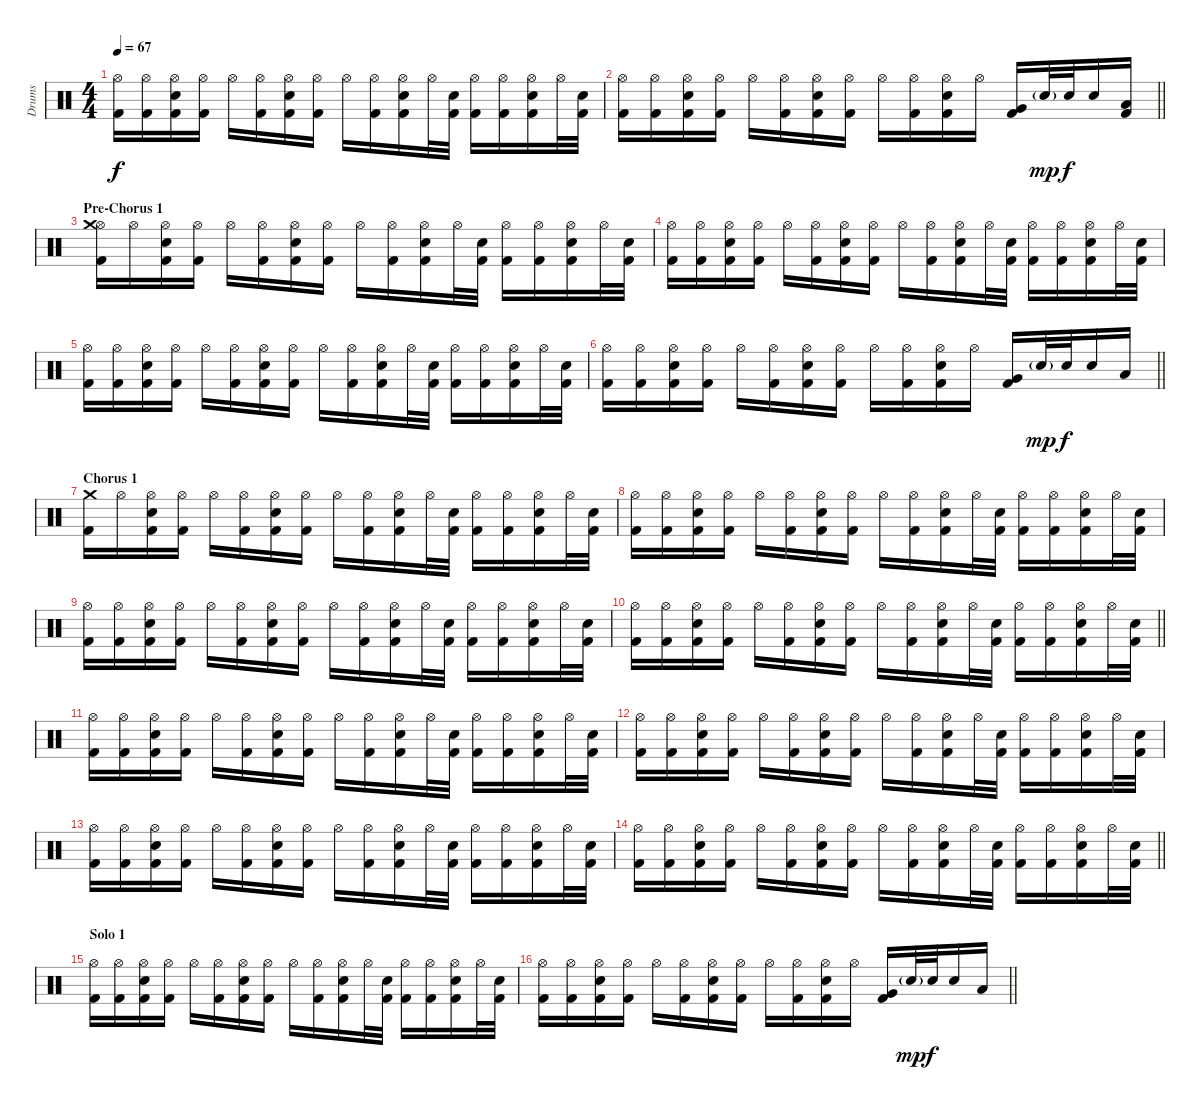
\track ("Drums" "Drums") {instrument percussion}
\staff {score}
\articulation defaults
\ts (4 4)
\tempo 67
\clef neutral
\ks c
("Kick (hit) 2" "Hi-Hat (open)").16{dy f} ("Kick (hit) 2" "Hi-Hat (open)").16 ("Kick (hit) 2" "Snare (hit) 2" "Hi-Hat (open)").16 ("Kick (hit) 2" "Hi-Hat (open)").16 "Hi-Hat (open)".16 ("Kick (hit) 2" "Hi-Hat (open)").16 ("Kick (hit) 2" "Snare (hit) 2" "Hi-Hat (open)").16 ("Kick (hit) 2" "Hi-Hat (open)").16 "Hi-Hat (open)".16 ("Kick (hit) 2" "Hi-Hat (open)").16 ("Kick (hit) 2" "Snare (hit) 2" "Hi-Hat (open)").16 "Hi-Hat (open)".32 ("Kick (hit) 2" "Snare (hit) 2").32 ("Kick (hit) 2" "Hi-Hat (open)").16 ("Kick (hit) 2" "Hi-Hat (open)").16 ("Kick (hit) 2" "Snare (hit) 2" "Hi-Hat (open)").16 "Hi-Hat (open)".32 ("Kick (hit) 2" "Snare (hit) 2").32 |
\barLineRight lightlight
("Kick (hit) 2" "Hi-Hat (open)").16 ("Kick (hit) 2" "Hi-Hat (open)").16 ("Kick (hit) 2" "Snare (hit) 2" "Hi-Hat (open)").16 ("Kick (hit) 2" "Hi-Hat (open)").16 "Hi-Hat (open)".16 ("Kick (hit) 2" "Hi-Hat (open)").16 ("Kick (hit) 2" "Snare (hit) 2" "Hi-Hat (open)").16 ("Kick (hit) 2" "Hi-Hat (open)").16 "Hi-Hat (open)".16 ("Kick (hit) 2" "Hi-Hat (open)").16 ("Kick (hit) 2" "Snare (hit) 2" "Hi-Hat (open)").16 "Hi-Hat (open)".16 ("Kick (hit) 2" "Very Low Tom (hit)").16 "Snare (hit) 2"{g}.32{dy mp} "Snare (hit) 2".32{dy f} "Snare (hit) 2".16 ("Kick (hit) 2" "Low Floor Tom (hit)").16 |
\section ("" "Pre-Chorus 1")
("Kick (hit) 2" "Hi-Hat (open)" "Crash medium (hit)").16 "Hi-Hat (open)".16 ("Kick (hit) 2" "Snare (hit) 2" "Hi-Hat (open)").16 ("Kick (hit) 2" "Hi-Hat (open)").16 "Hi-Hat (open)".16 ("Kick (hit) 2" "Hi-Hat (open)").16 ("Kick (hit) 2" "Snare (hit) 2" "Hi-Hat (open)").16 ("Kick (hit) 2" "Hi-Hat (open)").16 "Hi-Hat (open)".16 ("Kick (hit) 2" "Hi-Hat (open)").16 ("Kick (hit) 2" "Snare (hit) 2" "Hi-Hat (open)").16 "Hi-Hat (open)".32 ("Kick (hit) 2" "Snare (hit) 2").32 ("Kick (hit) 2" "Hi-Hat (open)").16 ("Kick (hit) 2" "Hi-Hat (open)").16 ("Kick (hit) 2" "Snare (hit) 2" "Hi-Hat (open)").16 "Hi-Hat (open)".32 ("Kick (hit) 2" "Snare (hit) 2").32 |
("Kick (hit) 2" "Hi-Hat (open)").16 ("Kick (hit) 2" "Hi-Hat (open)").16 ("Kick (hit) 2" "Snare (hit) 2" "Hi-Hat (open)").16 ("Kick (hit) 2" "Hi-Hat (open)").16 "Hi-Hat (open)".16 ("Kick (hit) 2" "Hi-Hat (open)").16 ("Kick (hit) 2" "Snare (hit) 2" "Hi-Hat (open)").16 ("Kick (hit) 2" "Hi-Hat (open)").16 "Hi-Hat (open)".16 ("Kick (hit) 2" "Hi-Hat (open)").16 ("Kick (hit) 2" "Snare (hit) 2" "Hi-Hat (open)").16 "Hi-Hat (open)".32 ("Kick (hit) 2" "Snare (hit) 2").32 ("Kick (hit) 2" "Hi-Hat (open)").16 ("Kick (hit) 2" "Hi-Hat (open)").16 ("Kick (hit) 2" "Snare (hit) 2" "Hi-Hat (open)").16 "Hi-Hat (open)".32 ("Kick (hit) 2" "Snare (hit) 2").32 |
("Kick (hit) 2" "Hi-Hat (open)").16 ("Kick (hit) 2" "Hi-Hat (open)").16 ("Kick (hit) 2" "Snare (hit) 2" "Hi-Hat (open)").16 ("Kick (hit) 2" "Hi-Hat (open)").16 "Hi-Hat (open)".16 ("Kick (hit) 2" "Hi-Hat (open)").16 ("Kick (hit) 2" "Snare (hit) 2" "Hi-Hat (open)").16 ("Kick (hit) 2" "Hi-Hat (open)").16 "Hi-Hat (open)".16 ("Kick (hit) 2" "Hi-Hat (open)").16 ("Kick (hit) 2" "Snare (hit) 2" "Hi-Hat (open)").16 "Hi-Hat (open)".32 ("Kick (hit) 2" "Snare (hit) 2").32 ("Kick (hit) 2" "Hi-Hat (open)").16 ("Kick (hit) 2" "Hi-Hat (open)").16 ("Kick (hit) 2" "Snare (hit) 2" "Hi-Hat (open)").16 "Hi-Hat (open)".32 ("Kick (hit) 2" "Snare (hit) 2").32 |
\barLineRight lightlight
("Kick (hit) 2" "Hi-Hat (open)").16 ("Kick (hit) 2" "Hi-Hat (open)").16 ("Kick (hit) 2" "Snare (hit) 2" "Hi-Hat (open)").16 ("Kick (hit) 2" "Hi-Hat (open)").16 "Hi-Hat (open)".16 ("Kick (hit) 2" "Hi-Hat (open)").16 ("Kick (hit) 2" "Snare (hit) 2" "Hi-Hat (open)").16 ("Kick (hit) 2" "Hi-Hat (open)").16 "Hi-Hat (open)".16 ("Kick (hit) 2" "Hi-Hat (open)").16 ("Kick (hit) 2" "Snare (hit) 2" "Hi-Hat (open)").16 "Hi-Hat (open)".16 ("Kick (hit) 2" "Very Low Tom (hit)").16 "Snare (hit) 2"{g}.32{dy mp} "Snare (hit) 2".32{dy f} "Snare (hit) 2".16 "Low Floor Tom (hit)".16 |
\section ("" "Chorus 1")
("Kick (hit) 2" "Crash medium (hit)").16 "Hi-Hat (open)".16 ("Kick (hit) 2" "Snare (hit) 2" "Hi-Hat (open)").16 ("Kick (hit) 2" "Hi-Hat (open)").16 "Hi-Hat (open)".16 ("Kick (hit) 2" "Hi-Hat (open)").16 ("Kick (hit) 2" "Snare (hit) 2" "Hi-Hat (open)").16 ("Kick (hit) 2" "Hi-Hat (open)").16 "Hi-Hat (open)".16 ("Kick (hit) 2" "Hi-Hat (open)").16 ("Kick (hit) 2" "Snare (hit) 2" "Hi-Hat (open)").16 "Hi-Hat (open)".32 ("Kick (hit) 2" "Snare (hit) 2").32 ("Kick (hit) 2" "Hi-Hat (open)").16 ("Kick (hit) 2" "Hi-Hat (open)").16 ("Kick (hit) 2" "Snare (hit) 2" "Hi-Hat (open)").16 "Hi-Hat (open)".32 ("Kick (hit) 2" "Snare (hit) 2").32 |
("Kick (hit) 2" "Hi-Hat (open)").16 ("Kick (hit) 2" "Hi-Hat (open)").16 ("Kick (hit) 2" "Snare (hit) 2" "Hi-Hat (open)").16 ("Kick (hit) 2" "Hi-Hat (open)").16 "Hi-Hat (open)".16 ("Kick (hit) 2" "Hi-Hat (open)").16 ("Kick (hit) 2" "Snare (hit) 2" "Hi-Hat (open)").16 ("Kick (hit) 2" "Hi-Hat (open)").16 "Hi-Hat (open)".16 ("Kick (hit) 2" "Hi-Hat (open)").16 ("Kick (hit) 2" "Snare (hit) 2" "Hi-Hat (open)").16 "Hi-Hat (open)".32 ("Kick (hit) 2" "Snare (hit) 2").32 ("Kick (hit) 2" "Hi-Hat (open)").16 ("Kick (hit) 2" "Hi-Hat (open)").16 ("Kick (hit) 2" "Snare (hit) 2" "Hi-Hat (open)").16 "Hi-Hat (open)".32 ("Kick (hit) 2" "Snare (hit) 2").32 |
("Kick (hit) 2" "Hi-Hat (open)").16 ("Kick (hit) 2" "Hi-Hat (open)").16 ("Kick (hit) 2" "Snare (hit) 2" "Hi-Hat (open)").16 ("Kick (hit) 2" "Hi-Hat (open)").16 "Hi-Hat (open)".16 ("Kick (hit) 2" "Hi-Hat (open)").16 ("Kick (hit) 2" "Snare (hit) 2" "Hi-Hat (open)").16 ("Kick (hit) 2" "Hi-Hat (open)").16 "Hi-Hat (open)".16 ("Kick (hit) 2" "Hi-Hat (open)").16 ("Kick (hit) 2" "Snare (hit) 2" "Hi-Hat (open)").16 "Hi-Hat (open)".32 ("Kick (hit) 2" "Snare (hit) 2").32 ("Kick (hit) 2" "Hi-Hat (open)").16 ("Kick (hit) 2" "Hi-Hat (open)").16 ("Kick (hit) 2" "Snare (hit) 2" "Hi-Hat (open)").16 "Hi-Hat (open)".32 ("Kick (hit) 2" "Snare (hit) 2").32 |
\barLineRight lightlight
("Kick (hit) 2" "Hi-Hat (open)").16 ("Kick (hit) 2" "Hi-Hat (open)").16 ("Kick (hit) 2" "Snare (hit) 2" "Hi-Hat (open)").16 ("Kick (hit) 2" "Hi-Hat (open)").16 "Hi-Hat (open)".16 ("Kick (hit) 2" "Hi-Hat (open)").16 ("Kick (hit) 2" "Snare (hit) 2" "Hi-Hat (open)").16 ("Kick (hit) 2" "Hi-Hat (open)").16 "Hi-Hat (open)".16 ("Kick (hit) 2" "Hi-Hat (open)").16 ("Kick (hit) 2" "Snare (hit) 2" "Hi-Hat (open)").16 "Hi-Hat (open)".32 ("Kick (hit) 2" "Snare (hit) 2").32 ("Kick (hit) 2" "Hi-Hat (open)").16 ("Kick (hit) 2" "Hi-Hat (open)").16 ("Kick (hit) 2" "Snare (hit) 2" "Hi-Hat (open)").16 "Hi-Hat (open)".32 ("Kick (hit) 2" "Snare (hit) 2").32 |
("Kick (hit) 2" "Hi-Hat (open)").16 ("Kick (hit) 2" "Hi-Hat (open)").16 ("Kick (hit) 2" "Snare (hit) 2" "Hi-Hat (open)").16 ("Kick (hit) 2" "Hi-Hat (open)").16 "Hi-Hat (open)".16 ("Kick (hit) 2" "Hi-Hat (open)").16 ("Kick (hit) 2" "Snare (hit) 2" "Hi-Hat (open)").16 ("Kick (hit) 2" "Hi-Hat (open)").16 "Hi-Hat (open)".16 ("Kick (hit) 2" "Hi-Hat (open)").16 ("Kick (hit) 2" "Snare (hit) 2" "Hi-Hat (open)").16 "Hi-Hat (open)".32 ("Kick (hit) 2" "Snare (hit) 2").32 ("Kick (hit) 2" "Hi-Hat (open)").16 ("Kick (hit) 2" "Hi-Hat (open)").16 ("Kick (hit) 2" "Snare (hit) 2" "Hi-Hat (open)").16 "Hi-Hat (open)".32 ("Kick (hit) 2" "Snare (hit) 2").32 |
("Kick (hit) 2" "Hi-Hat (open)").16 ("Kick (hit) 2" "Hi-Hat (open)").16 ("Kick (hit) 2" "Snare (hit) 2" "Hi-Hat (open)").16 ("Kick (hit) 2" "Hi-Hat (open)").16 "Hi-Hat (open)".16 ("Kick (hit) 2" "Hi-Hat (open)").16 ("Kick (hit) 2" "Snare (hit) 2" "Hi-Hat (open)").16 ("Kick (hit) 2" "Hi-Hat (open)").16 "Hi-Hat (open)".16 ("Kick (hit) 2" "Hi-Hat (open)").16 ("Kick (hit) 2" "Snare (hit) 2" "Hi-Hat (open)").16 "Hi-Hat (open)".32 ("Kick (hit) 2" "Snare (hit) 2").32 ("Kick (hit) 2" "Hi-Hat (open)").16 ("Kick (hit) 2" "Hi-Hat (open)").16 ("Kick (hit) 2" "Snare (hit) 2" "Hi-Hat (open)").16 "Hi-Hat (open)".32 ("Kick (hit) 2" "Snare (hit) 2").32 |
("Kick (hit) 2" "Hi-Hat (open)").16 ("Kick (hit) 2" "Hi-Hat (open)").16 ("Kick (hit) 2" "Snare (hit) 2" "Hi-Hat (open)").16 ("Kick (hit) 2" "Hi-Hat (open)").16 "Hi-Hat (open)".16 ("Kick (hit) 2" "Hi-Hat (open)").16 ("Kick (hit) 2" "Snare (hit) 2" "Hi-Hat (open)").16 ("Kick (hit) 2" "Hi-Hat (open)").16 "Hi-Hat (open)".16 ("Kick (hit) 2" "Hi-Hat (open)").16 ("Kick (hit) 2" "Snare (hit) 2" "Hi-Hat (open)").16 "Hi-Hat (open)".32 ("Kick (hit) 2" "Snare (hit) 2").32 ("Kick (hit) 2" "Hi-Hat (open)").16 ("Kick (hit) 2" "Hi-Hat (open)").16 ("Kick (hit) 2" "Snare (hit) 2" "Hi-Hat (open)").16 "Hi-Hat (open)".32 ("Kick (hit) 2" "Snare (hit) 2").32 |
\barLineRight lightlight
("Kick (hit) 2" "Hi-Hat (open)").16 ("Kick (hit) 2" "Hi-Hat (open)").16 ("Kick (hit) 2" "Snare (hit) 2" "Hi-Hat (open)").16 ("Kick (hit) 2" "Hi-Hat (open)").16 "Hi-Hat (open)".16 ("Kick (hit) 2" "Hi-Hat (open)").16 ("Kick (hit) 2" "Snare (hit) 2" "Hi-Hat (open)").16 ("Kick (hit) 2" "Hi-Hat (open)").16 "Hi-Hat (open)".16 ("Kick (hit) 2" "Hi-Hat (open)").16 ("Kick (hit) 2" "Snare (hit) 2" "Hi-Hat (open)").16 "Hi-Hat (open)".32 ("Kick (hit) 2" "Snare (hit) 2").32 ("Kick (hit) 2" "Hi-Hat (open)").16 ("Kick (hit) 2" "Hi-Hat (open)").16 ("Kick (hit) 2" "Snare (hit) 2" "Hi-Hat (open)").16 "Hi-Hat (open)".32 ("Kick (hit) 2" "Snare (hit) 2").32 |
\section ("" "Solo 1")
("Kick (hit) 2" "Hi-Hat (open)").16 ("Kick (hit) 2" "Hi-Hat (open)").16 ("Kick (hit) 2" "Snare (hit) 2" "Hi-Hat (open)").16 ("Kick (hit) 2" "Hi-Hat (open)").16 "Hi-Hat (open)".16 ("Kick (hit) 2" "Hi-Hat (open)").16 ("Kick (hit) 2" "Snare (hit) 2" "Hi-Hat (open)").16 ("Kick (hit) 2" "Hi-Hat (open)").16 "Hi-Hat (open)".16 ("Kick (hit) 2" "Hi-Hat (open)").16 ("Kick (hit) 2" "Snare (hit) 2" "Hi-Hat (open)").16 "Hi-Hat (open)".32 ("Kick (hit) 2" "Snare (hit) 2").32 ("Kick (hit) 2" "Hi-Hat (open)").16 ("Kick (hit) 2" "Hi-Hat (open)").16 ("Kick (hit) 2" "Snare (hit) 2" "Hi-Hat (open)").16 "Hi-Hat (open)".32 ("Kick (hit) 2" "Snare (hit) 2").32 |
\barLineRight lightlight
("Kick (hit) 2" "Hi-Hat (open)").16 ("Kick (hit) 2" "Hi-Hat (open)").16 ("Kick (hit) 2" "Snare (hit) 2" "Hi-Hat (open)").16 ("Kick (hit) 2" "Hi-Hat (open)").16 "Hi-Hat (open)".16 ("Kick (hit) 2" "Hi-Hat (open)").16 ("Kick (hit) 2" "Snare (hit) 2" "Hi-Hat (open)").16 ("Kick (hit) 2" "Hi-Hat (open)").16 "Hi-Hat (open)".16 ("Kick (hit) 2" "Hi-Hat (open)").16 ("Kick (hit) 2" "Snare (hit) 2" "Hi-Hat (open)").16 "Hi-Hat (open)".16 ("Kick (hit) 2" "Very Low Tom (hit)").16 "Snare (hit) 2"{g}.32{dy mp} "Snare (hit) 2".32{dy f} "Snare (hit) 2".16 "Low Floor Tom (hit)".16
